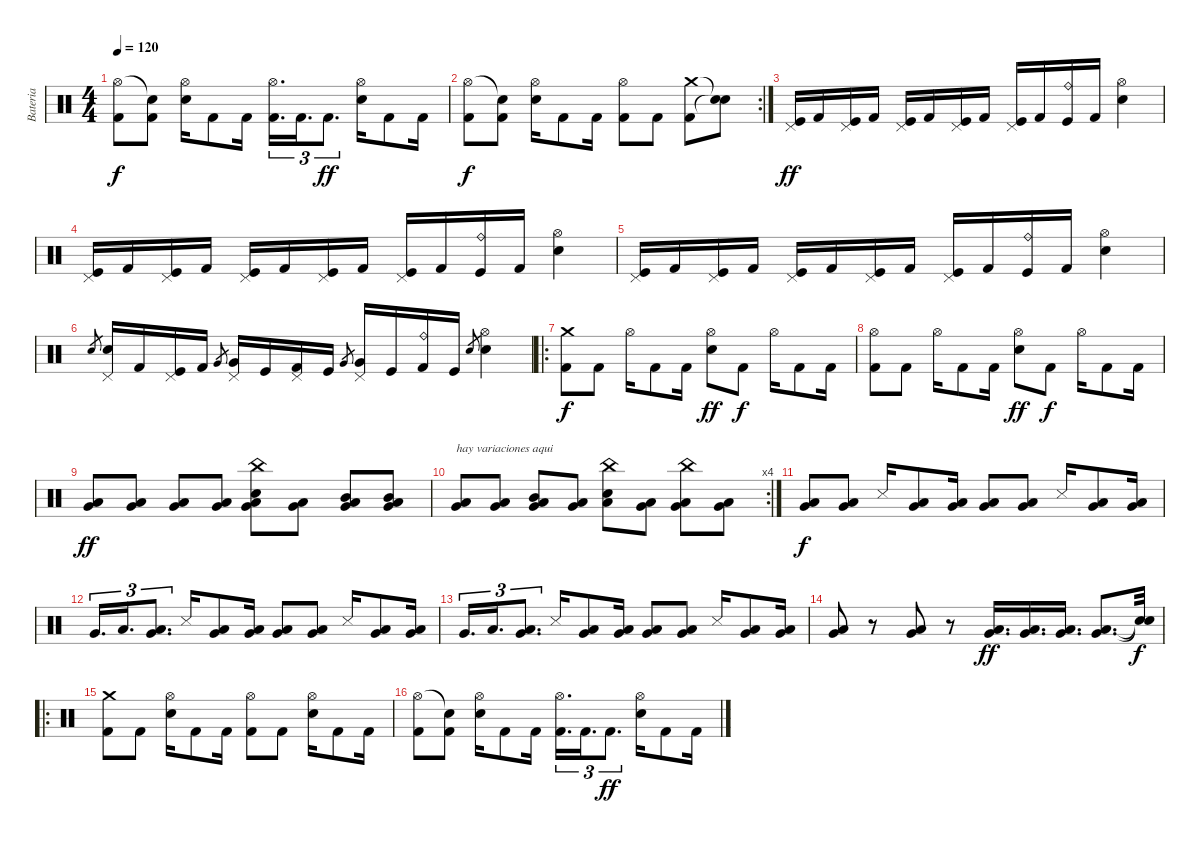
\track ("Bateria" "Bateria") {instrument percussion}
\staff {score}
\articulation defaults
\ts (4 4)
\tempo 120
\clef neutral
\ks c
("Hi-Hat (open)" "Kick (hit) 2").8{dy f} ("Snare (hit)"{t} "Kick (hit) 2").8 ("Hi-Hat (open)" "Electric Snare (hit)").16 "Kick (hit) 2".8 "Kick (hit) 2".16 ("Hi-Hat (open)" "Kick (hit) 2").16{d tu (3 2)} "Kick (hit) 2".16{d tu (3 2)} "Kick (hit) 2".8{d tu (3 2) dy ff} ("Hi-Hat (open)" "Electric Snare (hit)").16 "Kick (hit) 2".8 "Kick (hit) 2".16 |
\rc 2
("Hi-Hat (open)" "Kick (hit) 2").8{dy f} ("Snare (hit)"{t} "Kick (hit) 2").8 ("Hi-Hat (open)" "Electric Snare (hit)").16 "Kick (hit) 2".8 "Kick (hit) 2".16 ("Hi-Hat (open)" "Kick (hit) 2").8 "Kick (hit) 2".8 ("Crash medium (hit)" "Kick (hit) 2").8 ("Snare (hit)"{t} "Snare (hit)"{t}).8 |
("Pedal Hi-Hat (hit)" "Kick (hit)").16{dy ff} "Kick (hit) 2".16 ("Pedal Hi-Hat (hit)" "Kick (hit)").16 "Kick (hit) 2".16 ("Pedal Hi-Hat (hit)" "Kick (hit)").16 "Kick (hit) 2".16 ("Pedal Hi-Hat (hit)" "Kick (hit)").16 "Kick (hit) 2".16 ("Pedal Hi-Hat (hit)" "Kick (hit)").16 "Kick (hit) 2".16 ("Ride (bell)" "Kick (hit)").16 "Kick (hit) 2".16 ("Hi-Hat (open)" "Electric Snare (hit)").4 |
("Pedal Hi-Hat (hit)" "Kick (hit)").16 "Kick (hit) 2".16 ("Pedal Hi-Hat (hit)" "Kick (hit)").16 "Kick (hit) 2".16 ("Pedal Hi-Hat (hit)" "Kick (hit)").16 "Kick (hit) 2".16 ("Pedal Hi-Hat (hit)" "Kick (hit)").16 "Kick (hit) 2".16 ("Pedal Hi-Hat (hit)" "Kick (hit)").16 "Kick (hit) 2".16 ("Ride (bell)" "Kick (hit)").16 "Kick (hit) 2".16 ("Hi-Hat (open)" "Electric Snare (hit)").4 |
("Pedal Hi-Hat (hit)" "Kick (hit)").16 "Kick (hit) 2".16 ("Pedal Hi-Hat (hit)" "Kick (hit)").16 "Kick (hit) 2".16 ("Pedal Hi-Hat (hit)" "Kick (hit)").16 "Kick (hit) 2".16 ("Pedal Hi-Hat (hit)" "Kick (hit)").16 "Kick (hit) 2".16 ("Pedal Hi-Hat (hit)" "Kick (hit)").16 "Kick (hit) 2".16 ("Ride (bell)" "Kick (hit)").16 "Kick (hit) 2".16 ("Hi-Hat (open)" "Electric Snare (hit)").4 |
"Electric Snare (hit)".8{gr} ("Pedal Hi-Hat (hit)" "Electric Snare (hit)").16 "Kick (hit) 2".16 ("Pedal Hi-Hat (hit)" "Kick (hit)").16 "Kick (hit) 2".16 "Very Low Tom (hit)".8{gr} ("Pedal Hi-Hat (hit)" "Very Low Tom (hit)").16 "Kick (hit)".16 ("Pedal Hi-Hat (hit)" "Kick (hit) 2").16 "Kick (hit)".16 "Very Low Tom (hit)".8{gr} ("Pedal Hi-Hat (hit)" "Very Low Tom (hit)").16 "Kick (hit)".16 ("Ride (bell)" "Kick (hit) 2").16 "Kick (hit)".16 "Electric Snare (hit)".8{gr} ("Hi-Hat (open)" "Electric Snare (hit)").4 |
\ro
("Crash medium (hit)" "Kick (hit) 2").8{dy f} "Kick (hit) 2".8 "Hi-Hat (open)".16 "Kick (hit) 2".8 "Kick (hit) 2".16 ("Hi-Hat (open)" "Electric Snare (hit)").8{dy ff} "Kick (hit) 2".8{dy f} "Hi-Hat (open)".16 "Kick (hit) 2".8 "Kick (hit) 2".16 |
("Hi-Hat (open)" "Kick (hit) 2").8 "Kick (hit) 2".8 "Hi-Hat (open)".16 "Kick (hit) 2".8 "Kick (hit) 2".16 ("Hi-Hat (open)" "Electric Snare (hit)").8{dy ff} "Kick (hit) 2".8{dy f} "Hi-Hat (open)".16 "Kick (hit) 2".8 "Kick (hit) 2".16 |
("Very Low Tom (hit)" "Low Tom (hit)").8{dy ff} ("Very Low Tom (hit)" "Low Tom (hit)").8 ("Very Low Tom (hit)" "Low Tom (hit)").8 ("Very Low Tom (hit)" "Low Tom (hit)").8 ("China (hit)" "Electric Snare (hit)" "Very Low Tom (hit)" "Low Tom (hit)").8 ("Very Low Tom (hit)" "Low Tom (hit)").8 ("Mid Tom (hit)" "Very Low Tom (hit)" "Low Tom (hit)").8 ("Mid Tom (hit)" "Very Low Tom (hit)" "Low Tom (hit)").8 |
\rc 4
("Very Low Tom (hit)" "Low Tom (hit)").8{txt "hay variaciones aqui"} ("Very Low Tom (hit)" "Low Tom (hit)").8 ("Mid Tom (hit)" "Very Low Tom (hit)" "Low Tom (hit)").8 ("Very Low Tom (hit)" "Low Tom (hit)").8 ("China (hit)" "Electric Snare (hit)" "Low Tom (hit)").8 ("Very Low Tom (hit)" "Low Tom (hit)").8 ("China (hit)" "Very Low Tom (hit)" "Low Tom (hit)").8 ("Very Low Tom (hit)" "Low Tom (hit)").8 |
("Very Low Tom (hit)" "Low Floor Tom (hit)").8{dy f} ("Very Low Tom (hit)" "Low Floor Tom (hit)").8 "Snare (side stick) 3".16 ("Very Low Tom (hit)" "Low Floor Tom (hit)").8 ("Very Low Tom (hit)" "Low Floor Tom (hit)").16 ("Very Low Tom (hit)" "Low Floor Tom (hit)").8 ("Very Low Tom (hit)" "Low Floor Tom (hit)").8 "Snare (side stick) 3".16 ("Very Low Tom (hit)" "Low Floor Tom (hit)").8 ("Very Low Tom (hit)" "Low Floor Tom (hit)").16 |
"Very Low Tom (hit)".16{d tu (3 2)} "Low Tom (hit)".16{d tu (3 2)} ("Low Tom (hit)" "Very Low Tom (hit)").8{d tu (3 2)} "Snare (side stick) 3".16 ("Very Low Tom (hit)" "Low Tom (hit)").8 ("Very Low Tom (hit)" "Low Tom (hit)").16 ("Very Low Tom (hit)" "Low Floor Tom (hit)").8 ("Very Low Tom (hit)" "Low Floor Tom (hit)").8 "Snare (side stick) 3".16 ("Very Low Tom (hit)" "Low Floor Tom (hit)").8 ("Very Low Tom (hit)" "Low Floor Tom (hit)").16 |
"Very Low Tom (hit)".16{d tu (3 2)} "Low Tom (hit)".16{d tu (3 2)} ("Low Tom (hit)" "Very Low Tom (hit)").8{d tu (3 2)} "Snare (side stick) 3".16 ("Very Low Tom (hit)" "Low Tom (hit)").8 ("Very Low Tom (hit)" "Low Tom (hit)").16 ("Very Low Tom (hit)" "Low Floor Tom (hit)").8 ("Very Low Tom (hit)" "Low Floor Tom (hit)").8 "Snare (side stick) 3".16 ("Very Low Tom (hit)" "Low Floor Tom (hit)").8 ("Very Low Tom (hit)" "Low Floor Tom (hit)").16 |
("Very Low Tom (hit)" "Low Floor Tom (hit)").8 r.8 ("Very Low Tom (hit)" "Low Floor Tom (hit)").8 r.8 ("Very Low Tom (hit)" "Low Tom (hit)").16{d dy ff} ("Very Low Tom (hit)" "Low Tom (hit)").16{d} ("Very Low Tom (hit)" "Low Floor Tom (hit)").16{d} ("Very Low Tom (hit)" "Low Floor Tom (hit)").8{d} ("Snare (hit)"{t} "Snare (hit)"{t}).32{dy f} |
\ro
("Crash medium (hit)" "Kick (hit) 2").8 "Kick (hit) 2".8 ("Hi-Hat (open)" "Electric Snare (hit)").16 "Kick (hit) 2".8 "Kick (hit) 2".16 ("Hi-Hat (open)" "Kick (hit) 2").8 "Kick (hit) 2".8 ("Hi-Hat (open)" "Electric Snare (hit)").16 "Kick (hit) 2".8 "Kick (hit) 2".16 |
("Hi-Hat (open)" "Kick (hit) 2").8 ("Snare (hit)"{t} "Kick (hit) 2").8 ("Hi-Hat (open)" "Electric Snare (hit)").16 "Kick (hit) 2".8 "Kick (hit) 2".16 ("Hi-Hat (open)" "Kick (hit) 2").16{d tu (3 2)} "Kick (hit) 2".16{d tu (3 2)} "Kick (hit) 2".8{d tu (3 2) dy ff} ("Hi-Hat (open)" "Electric Snare (hit)").16 "Kick (hit) 2".8 "Kick (hit) 2".16
